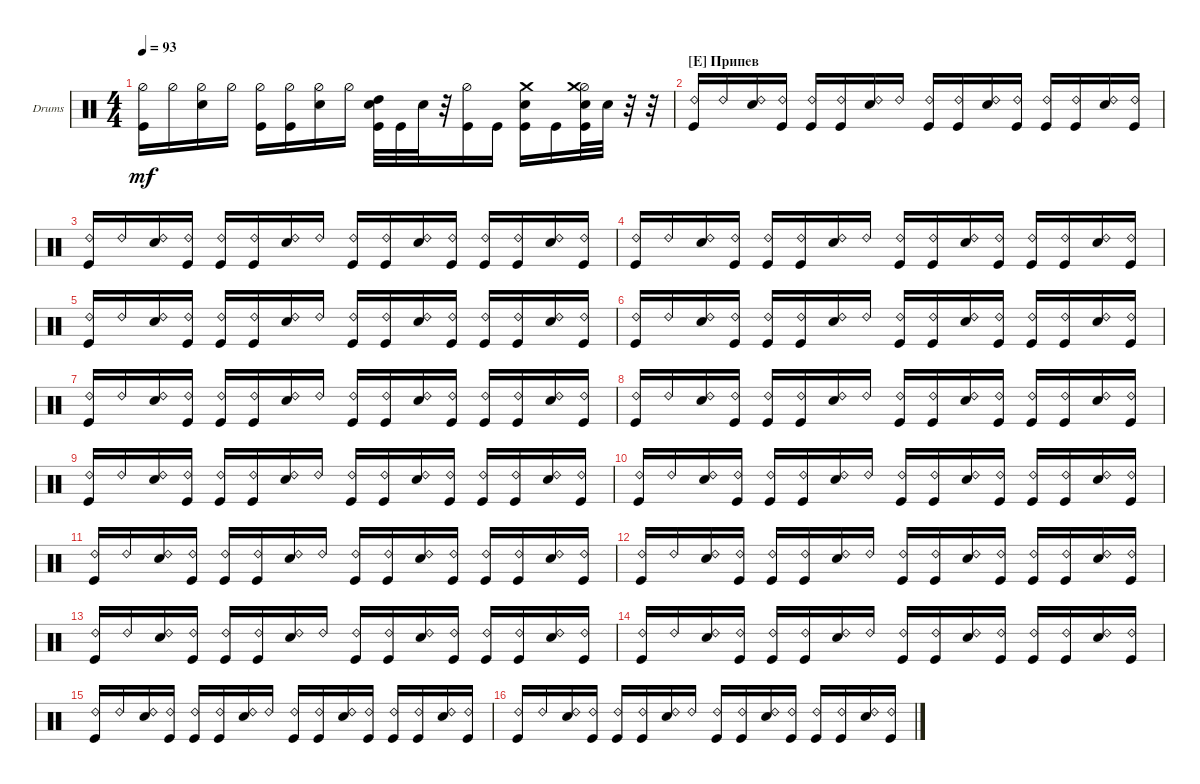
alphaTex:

\defaultSystemsLayout 4
\bracketExtendMode groupsimilarinstruments
\firstSystemTrackNameOrientation horizontal
\otherSystemsTrackNameOrientation horizontal
\track ("Drumkit" "Drums") {instrument percussion}
\staff {score}
\articulation defaults
\ts (4 4)
\tempo 93
\clef neutral
\ks c
("Kick (hit)" "Hi-Hat (half)").16{dy mf} "Hi-Hat (half)".16 ("Snare (hit) 2" "Hi-Hat (half)").16 "Hi-Hat (half)".16 ("Kick (hit)" "Hi-Hat (half)").16 ("Kick (hit)" "Hi-Hat (half)").16 ("Snare (hit) 2" "Hi-Hat (half)").16 "Hi-Hat (half)".16 ("Snare (hit) 2" "Kick (hit)" "High Tom (hit)").32 "Kick (hit)".32 "Snare (hit) 2".32 r.32 ("Kick (hit)" "Hi-Hat (half)").16 "Kick (hit)".16 ("Kick (hit)" "Snare (hit) 2" "Crash medium (hit)").16 "Kick (hit)".16 ("Kick (hit)" "Snare (hit) 2" "Hi-Hat (half)" "Crash medium (hit)").32 "Snare (hit) 2".32 r.32 r.32 |
\section ("E" "Припев")
("Kick (hit)" "Ride (bell) 2").16 "Ride (bell) 2".16 ("Snare (hit) 2" "Ride (bell) 2").16 ("Kick (hit)" "Ride (bell) 2").16 ("Kick (hit)" "Ride (bell) 2").16 ("Kick (hit)" "Ride (bell) 2").16 ("Snare (hit) 2" "Ride (bell) 2").16 "Ride (bell) 2".16 ("Kick (hit)" "Ride (bell) 2").16 ("Kick (hit)" "Ride (bell) 2").16 ("Snare (hit) 2" "Ride (bell) 2").16 ("Kick (hit)" "Ride (bell) 2").16 ("Kick (hit)" "Ride (bell) 2").16 ("Kick (hit)" "Ride (bell) 2").16 ("Snare (hit) 2" "Ride (bell) 2").16 ("Kick (hit)" "Ride (bell) 2").16 |
("Kick (hit)" "Ride (bell) 2").16 "Ride (bell) 2".16 ("Snare (hit) 2" "Ride (bell) 2").16 ("Kick (hit)" "Ride (bell) 2").16 ("Kick (hit)" "Ride (bell) 2").16 ("Kick (hit)" "Ride (bell) 2").16 ("Snare (hit) 2" "Ride (bell) 2").16 "Ride (bell) 2".16 ("Kick (hit)" "Ride (bell) 2").16 ("Kick (hit)" "Ride (bell) 2").16 ("Snare (hit) 2" "Ride (bell) 2").16 ("Kick (hit)" "Ride (bell) 2").16 ("Kick (hit)" "Ride (bell) 2").16 ("Kick (hit)" "Ride (bell) 2").16 ("Snare (hit) 2" "Ride (bell) 2").16 ("Kick (hit)" "Ride (bell) 2").16 |
("Kick (hit)" "Ride (bell) 2").16 "Ride (bell) 2".16 ("Snare (hit) 2" "Ride (bell) 2").16 ("Kick (hit)" "Ride (bell) 2").16 ("Kick (hit)" "Ride (bell) 2").16 ("Kick (hit)" "Ride (bell) 2").16 ("Snare (hit) 2" "Ride (bell) 2").16 "Ride (bell) 2".16 ("Kick (hit)" "Ride (bell) 2").16 ("Kick (hit)" "Ride (bell) 2").16 ("Snare (hit) 2" "Ride (bell) 2").16 ("Kick (hit)" "Ride (bell) 2").16 ("Kick (hit)" "Ride (bell) 2").16 ("Kick (hit)" "Ride (bell) 2").16 ("Snare (hit) 2" "Ride (bell) 2").16 ("Kick (hit)" "Ride (bell) 2").16 |
("Kick (hit)" "Ride (bell) 2").16 "Ride (bell) 2".16 ("Snare (hit) 2" "Ride (bell) 2").16 ("Kick (hit)" "Ride (bell) 2").16 ("Kick (hit)" "Ride (bell) 2").16 ("Kick (hit)" "Ride (bell) 2").16 ("Snare (hit) 2" "Ride (bell) 2").16 "Ride (bell) 2".16 ("Kick (hit)" "Ride (bell) 2").16 ("Kick (hit)" "Ride (bell) 2").16 ("Snare (hit) 2" "Ride (bell) 2").16 ("Kick (hit)" "Ride (bell) 2").16 ("Kick (hit)" "Ride (bell) 2").16 ("Kick (hit)" "Ride (bell) 2").16 ("Snare (hit) 2" "Ride (bell) 2").16 ("Kick (hit)" "Ride (bell) 2").16 |
("Kick (hit)" "Ride (bell) 2").16 "Ride (bell) 2".16 ("Snare (hit) 2" "Ride (bell) 2").16 ("Kick (hit)" "Ride (bell) 2").16 ("Kick (hit)" "Ride (bell) 2").16 ("Kick (hit)" "Ride (bell) 2").16 ("Snare (hit) 2" "Ride (bell) 2").16 "Ride (bell) 2".16 ("Kick (hit)" "Ride (bell) 2").16 ("Kick (hit)" "Ride (bell) 2").16 ("Snare (hit) 2" "Ride (bell) 2").16 ("Kick (hit)" "Ride (bell) 2").16 ("Kick (hit)" "Ride (bell) 2").16 ("Kick (hit)" "Ride (bell) 2").16 ("Snare (hit) 2" "Ride (bell) 2").16 ("Kick (hit)" "Ride (bell) 2").16 |
("Kick (hit)" "Ride (bell) 2").16 "Ride (bell) 2".16 ("Snare (hit) 2" "Ride (bell) 2").16 ("Kick (hit)" "Ride (bell) 2").16 ("Kick (hit)" "Ride (bell) 2").16 ("Kick (hit)" "Ride (bell) 2").16 ("Snare (hit) 2" "Ride (bell) 2").16 "Ride (bell) 2".16 ("Kick (hit)" "Ride (bell) 2").16 ("Kick (hit)" "Ride (bell) 2").16 ("Snare (hit) 2" "Ride (bell) 2").16 ("Kick (hit)" "Ride (bell) 2").16 ("Kick (hit)" "Ride (bell) 2").16 ("Kick (hit)" "Ride (bell) 2").16 ("Snare (hit) 2" "Ride (bell) 2").16 ("Kick (hit)" "Ride (bell) 2").16 |
("Kick (hit)" "Ride (bell) 2").16 "Ride (bell) 2".16 ("Snare (hit) 2" "Ride (bell) 2").16 ("Kick (hit)" "Ride (bell) 2").16 ("Kick (hit)" "Ride (bell) 2").16 ("Kick (hit)" "Ride (bell) 2").16 ("Snare (hit) 2" "Ride (bell) 2").16 "Ride (bell) 2".16 ("Kick (hit)" "Ride (bell) 2").16 ("Kick (hit)" "Ride (bell) 2").16 ("Snare (hit) 2" "Ride (bell) 2").16 ("Kick (hit)" "Ride (bell) 2").16 ("Kick (hit)" "Ride (bell) 2").16 ("Kick (hit)" "Ride (bell) 2").16 ("Snare (hit) 2" "Ride (bell) 2").16 ("Kick (hit)" "Ride (bell) 2").16 |
("Kick (hit)" "Ride (bell) 2").16 "Ride (bell) 2".16 ("Snare (hit) 2" "Ride (bell) 2").16 ("Kick (hit)" "Ride (bell) 2").16 ("Kick (hit)" "Ride (bell) 2").16 ("Kick (hit)" "Ride (bell) 2").16 ("Snare (hit) 2" "Ride (bell) 2").16 "Ride (bell) 2".16 ("Kick (hit)" "Ride (bell) 2").16 ("Kick (hit)" "Ride (bell) 2").16 ("Snare (hit) 2" "Ride (bell) 2").16 ("Kick (hit)" "Ride (bell) 2").16 ("Kick (hit)" "Ride (bell) 2").16 ("Kick (hit)" "Ride (bell) 2").16 ("Snare (hit) 2" "Ride (bell) 2").16 ("Kick (hit)" "Ride (bell) 2").16 |
("Kick (hit)" "Ride (bell) 2").16 "Ride (bell) 2".16 ("Snare (hit) 2" "Ride (bell) 2").16 ("Kick (hit)" "Ride (bell) 2").16 ("Kick (hit)" "Ride (bell) 2").16 ("Kick (hit)" "Ride (bell) 2").16 ("Snare (hit) 2" "Ride (bell) 2").16 "Ride (bell) 2".16 ("Kick (hit)" "Ride (bell) 2").16 ("Kick (hit)" "Ride (bell) 2").16 ("Snare (hit) 2" "Ride (bell) 2").16 ("Kick (hit)" "Ride (bell) 2").16 ("Kick (hit)" "Ride (bell) 2").16 ("Kick (hit)" "Ride (bell) 2").16 ("Snare (hit) 2" "Ride (bell) 2").16 ("Kick (hit)" "Ride (bell) 2").16 |
("Kick (hit)" "Ride (bell) 2").16 "Ride (bell) 2".16 ("Snare (hit) 2" "Ride (bell) 2").16 ("Kick (hit)" "Ride (bell) 2").16 ("Kick (hit)" "Ride (bell) 2").16 ("Kick (hit)" "Ride (bell) 2").16 ("Snare (hit) 2" "Ride (bell) 2").16 "Ride (bell) 2".16 ("Kick (hit)" "Ride (bell) 2").16 ("Kick (hit)" "Ride (bell) 2").16 ("Snare (hit) 2" "Ride (bell) 2").16 ("Kick (hit)" "Ride (bell) 2").16 ("Kick (hit)" "Ride (bell) 2").16 ("Kick (hit)" "Ride (bell) 2").16 ("Snare (hit) 2" "Ride (bell) 2").16 ("Kick (hit)" "Ride (bell) 2").16 |
("Kick (hit)" "Ride (bell) 2").16 "Ride (bell) 2".16 ("Snare (hit) 2" "Ride (bell) 2").16 ("Kick (hit)" "Ride (bell) 2").16 ("Kick (hit)" "Ride (bell) 2").16 ("Kick (hit)" "Ride (bell) 2").16 ("Snare (hit) 2" "Ride (bell) 2").16 "Ride (bell) 2".16 ("Kick (hit)" "Ride (bell) 2").16 ("Kick (hit)" "Ride (bell) 2").16 ("Snare (hit) 2" "Ride (bell) 2").16 ("Kick (hit)" "Ride (bell) 2").16 ("Kick (hit)" "Ride (bell) 2").16 ("Kick (hit)" "Ride (bell) 2").16 ("Snare (hit) 2" "Ride (bell) 2").16 ("Kick (hit)" "Ride (bell) 2").16 |
("Kick (hit)" "Ride (bell) 2").16 "Ride (bell) 2".16 ("Snare (hit) 2" "Ride (bell) 2").16 ("Kick (hit)" "Ride (bell) 2").16 ("Kick (hit)" "Ride (bell) 2").16 ("Kick (hit)" "Ride (bell) 2").16 ("Snare (hit) 2" "Ride (bell) 2").16 "Ride (bell) 2".16 ("Kick (hit)" "Ride (bell) 2").16 ("Kick (hit)" "Ride (bell) 2").16 ("Snare (hit) 2" "Ride (bell) 2").16 ("Kick (hit)" "Ride (bell) 2").16 ("Kick (hit)" "Ride (bell) 2").16 ("Kick (hit)" "Ride (bell) 2").16 ("Snare (hit) 2" "Ride (bell) 2").16 ("Kick (hit)" "Ride (bell) 2").16 |
("Kick (hit)" "Ride (bell) 2").16 "Ride (bell) 2".16 ("Snare (hit) 2" "Ride (bell) 2").16 ("Kick (hit)" "Ride (bell) 2").16 ("Kick (hit)" "Ride (bell) 2").16 ("Kick (hit)" "Ride (bell) 2").16 ("Snare (hit) 2" "Ride (bell) 2").16 "Ride (bell) 2".16 ("Kick (hit)" "Ride (bell) 2").16 ("Kick (hit)" "Ride (bell) 2").16 ("Snare (hit) 2" "Ride (bell) 2").16 ("Kick (hit)" "Ride (bell) 2").16 ("Kick (hit)" "Ride (bell) 2").16 ("Kick (hit)" "Ride (bell) 2").16 ("Snare (hit) 2" "Ride (bell) 2").16 ("Kick (hit)" "Ride (bell) 2").16 |
("Kick (hit)" "Ride (bell) 2").16 "Ride (bell) 2".16 ("Snare (hit) 2" "Ride (bell) 2").16 ("Kick (hit)" "Ride (bell) 2").16 ("Kick (hit)" "Ride (bell) 2").16 ("Kick (hit)" "Ride (bell) 2").16 ("Snare (hit) 2" "Ride (bell) 2").16 "Ride (bell) 2".16 ("Kick (hit)" "Ride (bell) 2").16 ("Kick (hit)" "Ride (bell) 2").16 ("Snare (hit) 2" "Ride (bell) 2").16 ("Kick (hit)" "Ride (bell) 2").16 ("Kick (hit)" "Ride (bell) 2").16 ("Kick (hit)" "Ride (bell) 2").16 ("Snare (hit) 2" "Ride (bell) 2").16 ("Kick (hit)" "Ride (bell) 2").16 |
("Kick (hit)" "Ride (bell) 2").16 "Ride (bell) 2".16 ("Snare (hit) 2" "Ride (bell) 2").16 ("Kick (hit)" "Ride (bell) 2").16 ("Kick (hit)" "Ride (bell) 2").16 ("Kick (hit)" "Ride (bell) 2").16 ("Snare (hit) 2" "Ride (bell) 2").16 "Ride (bell) 2".16 ("Kick (hit)" "Ride (bell) 2").16 ("Kick (hit)" "Ride (bell) 2").16 ("Snare (hit) 2" "Ride (bell) 2").16 ("Kick (hit)" "Ride (bell) 2").16 ("Kick (hit)" "Ride (bell) 2").16 ("Kick (hit)" "Ride (bell) 2").16 ("Snare (hit) 2" "Ride (bell) 2").16 ("Kick (hit)" "Ride (bell) 2").16
